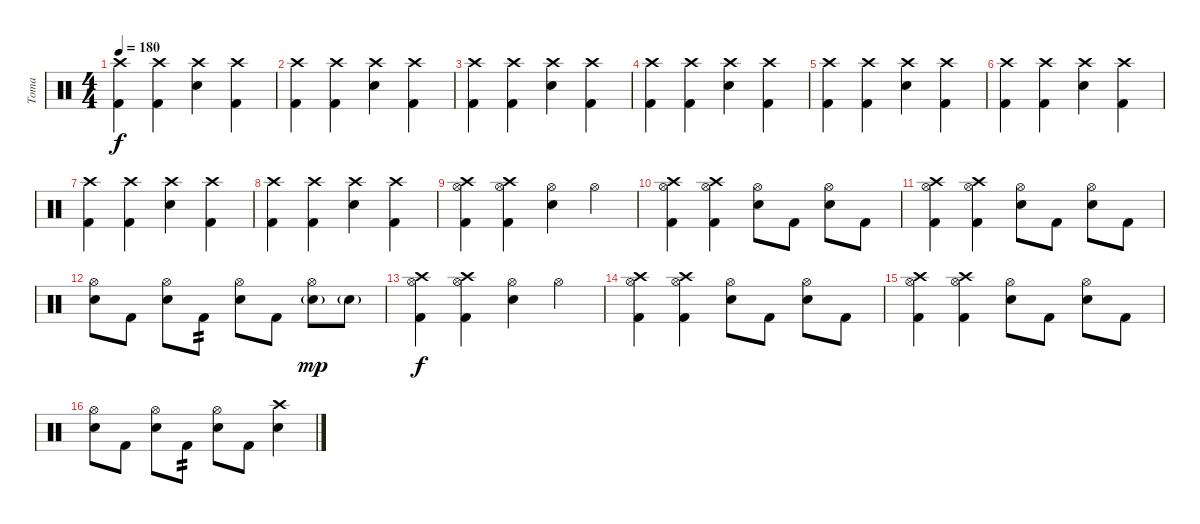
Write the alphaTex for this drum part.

\track ("Toma" "Toma") {instrument percussion}
\staff {score}
\articulation defaults
\ts (4 4)
\tempo 180
\clef neutral
\ks c
("Crash high (hit)" "Kick (hit) 2").4{dy f} ("Crash high (hit)" "Kick (hit) 2").4 ("Crash high (hit)" "Electric Snare (hit)").4 ("Crash high (hit)" "Kick (hit) 2").4 |
("Crash high (hit)" "Kick (hit) 2").4 ("Crash high (hit)" "Kick (hit) 2").4 ("Crash high (hit)" "Electric Snare (hit)").4 ("Crash high (hit)" "Kick (hit) 2").4 |
("Crash high (hit)" "Kick (hit) 2").4 ("Crash high (hit)" "Kick (hit) 2").4 ("Crash high (hit)" "Electric Snare (hit)").4 ("Crash high (hit)" "Kick (hit) 2").4 |
("Crash high (hit)" "Kick (hit) 2").4 ("Crash high (hit)" "Kick (hit) 2").4 ("Crash high (hit)" "Electric Snare (hit)").4 ("Crash high (hit)" "Kick (hit) 2").4 |
("Crash high (hit)" "Kick (hit) 2").4 ("Crash high (hit)" "Kick (hit) 2").4 ("Crash high (hit)" "Electric Snare (hit)").4 ("Crash high (hit)" "Kick (hit) 2").4 |
("Crash high (hit)" "Kick (hit) 2").4 ("Crash high (hit)" "Kick (hit) 2").4 ("Crash high (hit)" "Electric Snare (hit)").4 ("Crash high (hit)" "Kick (hit) 2").4 |
("Crash high (hit)" "Kick (hit) 2").4 ("Crash high (hit)" "Kick (hit) 2").4 ("Crash high (hit)" "Electric Snare (hit)").4 ("Crash high (hit)" "Kick (hit) 2").4 |
("Crash high (hit)" "Kick (hit) 2").4 ("Crash high (hit)" "Kick (hit) 2").4 ("Crash high (hit)" "Electric Snare (hit)").4 ("Crash high (hit)" "Kick (hit) 2").4 |
("Crash high (hit)" "Hi-Hat (open)" "Kick (hit) 2").4 ("Crash high (hit)" "Hi-Hat (open)" "Kick (hit) 2").4 ("Hi-Hat (open)" "Electric Snare (hit)").4 "Hi-Hat (open)".4 |
("Crash high (hit)" "Hi-Hat (open)" "Kick (hit) 2").4 ("Crash high (hit)" "Hi-Hat (open)" "Kick (hit) 2").4 ("Hi-Hat (open)" "Electric Snare (hit)").8 "Kick (hit) 2".8 ("Hi-Hat (open)" "Snare (hit)").8 "Kick (hit) 2".8 |
("Crash high (hit)" "Hi-Hat (open)" "Kick (hit) 2").4 ("Crash high (hit)" "Hi-Hat (open)" "Kick (hit) 2").4 ("Hi-Hat (open)" "Electric Snare (hit)").8 "Kick (hit) 2".8 ("Hi-Hat (open)" "Snare (hit)").8 "Kick (hit) 2".8 |
("Hi-Hat (open)" "Snare (hit)").8 "Kick (hit) 2".8 ("Hi-Hat (open)" "Snare (hit)").8 "Kick (hit) 2".8{tp 2} ("Hi-Hat (open)" "Electric Snare (hit)").8 "Kick (hit) 2".8 ("Hi-Hat (open)" "Electric Snare (hit)"{g}).8{dy mp} "Electric Snare (hit)"{g}.8 |
("Crash high (hit)" "Hi-Hat (open)" "Kick (hit) 2").4{dy f} ("Crash high (hit)" "Hi-Hat (open)" "Kick (hit) 2").4 ("Hi-Hat (open)" "Electric Snare (hit)").4 "Hi-Hat (open)".4 |
("Crash high (hit)" "Hi-Hat (open)" "Kick (hit) 2").4 ("Crash high (hit)" "Hi-Hat (open)" "Kick (hit) 2").4 ("Hi-Hat (open)" "Electric Snare (hit)").8 "Kick (hit) 2".8 ("Hi-Hat (open)" "Snare (hit)").8 "Kick (hit) 2".8 |
("Crash high (hit)" "Hi-Hat (open)" "Kick (hit) 2").4 ("Crash high (hit)" "Hi-Hat (open)" "Kick (hit) 2").4 ("Hi-Hat (open)" "Electric Snare (hit)").8 "Kick (hit) 2".8 ("Hi-Hat (open)" "Snare (hit)").8 "Kick (hit) 2".8 |
("Hi-Hat (open)" "Snare (hit)").8 "Kick (hit) 2".8 ("Hi-Hat (open)" "Snare (hit)").8 "Kick (hit) 2".8{tp 2} ("Hi-Hat (open)" "Electric Snare (hit)").8 "Kick (hit) 2".8 ("Crash high (hit)" "Electric Snare (hit)").4
